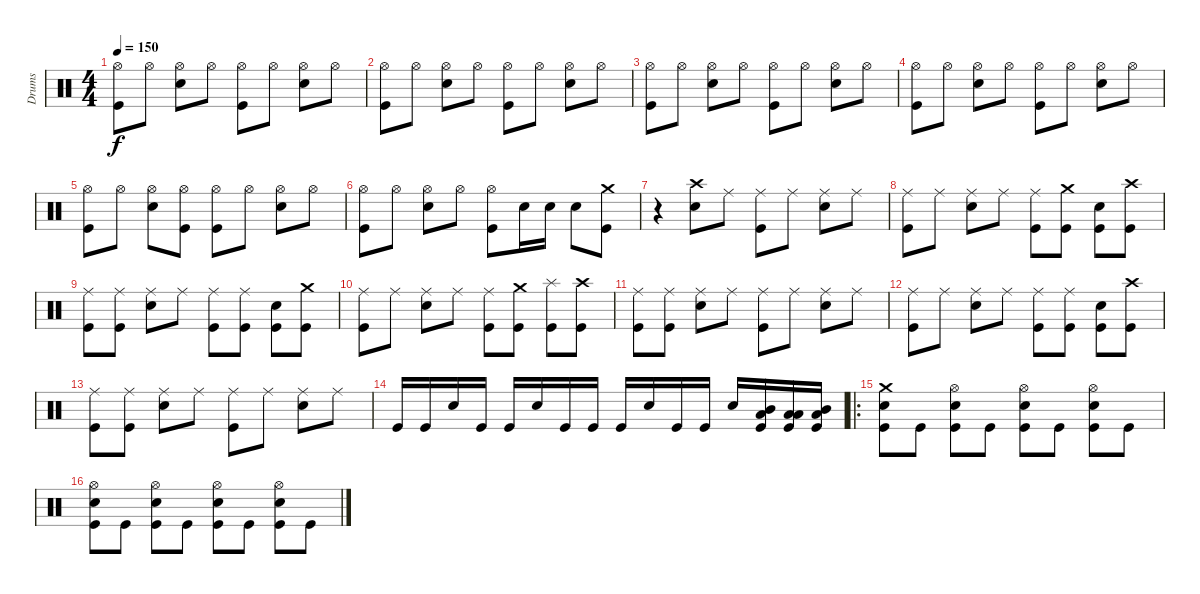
\track ("Drums" "Drums") {instrument percussion}
\staff {score}
\articulation defaults
\ts (4 4)
\tempo 150
\clef neutral
\ks c
("Hi-Hat (open)" "Kick (hit)").8{dy f} "Hi-Hat (open)".8 ("Hi-Hat (open)" "Snare (hit) 2").8 "Hi-Hat (open)".8 ("Hi-Hat (open)" "Kick (hit)").8 "Hi-Hat (open)".8 ("Hi-Hat (open)" "Snare (hit) 2").8 "Hi-Hat (open)".8 |
("Hi-Hat (open)" "Kick (hit)").8 "Hi-Hat (open)".8 ("Hi-Hat (open)" "Snare (hit) 2").8 "Hi-Hat (open)".8 ("Hi-Hat (open)" "Kick (hit)").8 "Hi-Hat (open)".8 ("Hi-Hat (open)" "Snare (hit) 2").8 "Hi-Hat (open)".8 |
("Hi-Hat (open)" "Kick (hit)").8 "Hi-Hat (open)".8 ("Hi-Hat (open)" "Snare (hit) 2").8 "Hi-Hat (open)".8 ("Hi-Hat (open)" "Kick (hit)").8 "Hi-Hat (open)".8 ("Hi-Hat (open)" "Snare (hit) 2").8 "Hi-Hat (open)".8 |
("Hi-Hat (open)" "Kick (hit)").8 "Hi-Hat (open)".8 ("Hi-Hat (open)" "Snare (hit) 2").8 "Hi-Hat (open)".8 ("Hi-Hat (open)" "Kick (hit)").8 "Hi-Hat (open)".8 ("Hi-Hat (open)" "Snare (hit) 2").8 "Hi-Hat (open)".8 |
("Hi-Hat (open)" "Kick (hit)").8 "Hi-Hat (open)".8 ("Hi-Hat (open)" "Snare (hit) 2").8 ("Hi-Hat (open)" "Kick (hit)").8 ("Hi-Hat (open)" "Kick (hit)").8 "Hi-Hat (open)".8 ("Hi-Hat (open)" "Snare (hit) 2").8 "Hi-Hat (open)".8 |
("Hi-Hat (open)" "Kick (hit)").8 "Hi-Hat (open)".8 ("Hi-Hat (open)" "Snare (hit) 2").8 "Hi-Hat (open)".8 ("Hi-Hat (open)" "Kick (hit)").8 "Snare (hit) 2".16 "Snare (hit) 2".16 "Snare (hit) 2".8 ("Crash medium (hit)" "Kick (hit)").8 |
r.4 ("Crash high (hit)" "Snare (hit) 2").8 "Ride (middle)".8 ("Ride (middle)" "Kick (hit)").8 "Ride (middle)".8 ("Ride (middle)" "Snare (hit) 2").8 "Ride (middle)".8 |
("Ride (middle)" "Kick (hit)").8 "Ride (middle)".8 ("Ride (middle)" "Snare (hit) 2").8 "Ride (middle)".8 ("Ride (middle)" "Kick (hit)").8 ("Crash medium (hit)" "Kick (hit)").8 ("Snare (hit) 2" "Kick (hit)").8 ("Crash high (hit)" "Kick (hit)").8 |
("Ride (middle)" "Kick (hit)").8 ("Ride (middle)" "Kick (hit)").8 ("Ride (middle)" "Snare (hit) 2").8 "Ride (middle)".8 ("Ride (middle)" "Kick (hit)").8 ("Ride (middle)" "Kick (hit)").8 ("Snare (hit) 2" "Kick (hit)").8 ("Crash medium (hit)" "Kick (hit)").8 |
("Ride (middle)" "Kick (hit)").8 "Ride (middle)".8 ("Ride (middle)" "Snare (hit) 2").8 "Ride (middle)".8 ("Ride (middle)" "Kick (hit)").8 ("Crash medium (hit)" "Kick (hit)").8 ("Splash (hit)" "Kick (hit)").8 ("Crash high (hit)" "Kick (hit)").8 |
("Ride (middle)" "Kick (hit)").8 ("Ride (middle)" "Kick (hit)").8 ("Ride (middle)" "Snare (hit) 2").8 "Ride (middle)".8 ("Ride (middle)" "Kick (hit)").8 "Ride (middle)".8 ("Ride (middle)" "Snare (hit) 2").8 "Ride (middle)".8 |
("Ride (middle)" "Kick (hit)").8 "Ride (middle)".8 ("Ride (middle)" "Snare (hit) 2").8 "Ride (middle)".8 ("Ride (middle)" "Kick (hit)").8 ("Ride (middle)" "Kick (hit)").8 ("Snare (hit) 2" "Kick (hit)").8 ("Crash high (hit)" "Kick (hit)").8 |
("Ride (middle)" "Kick (hit)").8 ("Ride (middle)" "Kick (hit)").8 ("Ride (middle)" "Snare (hit) 2").8 "Ride (middle)".8 ("Ride (middle)" "Kick (hit)").8 "Ride (middle)".8 ("Ride (middle)" "Snare (hit) 2").8 "Ride (middle)".8 |
"Kick (hit)".16 "Kick (hit)".16 "Snare (hit) 2".16 "Kick (hit)".16 "Kick (hit)".16 "Snare (hit) 2".16 "Kick (hit)".16 "Kick (hit)".16 "Kick (hit)".16 "Snare (hit) 2".16 "Kick (hit)".16 "Kick (hit)".16 "Snare (hit) 2".16 ("Low Tom (hit)" "Mid Tom (hit)" "Kick (hit)").16 ("Low Floor Tom (hit)" "Low Tom (hit)" "Kick (hit)").16 ("Mid Tom (hit)" "Low Floor Tom (hit)" "Kick (hit)").16 |
\ro
("Crash medium (hit)" "Snare (hit) 2" "Kick (hit)").8 "Kick (hit)".8 ("Hi-Hat (open)" "Snare (hit) 2" "Kick (hit)").8 "Kick (hit)".8 ("Hi-Hat (open)" "Snare (hit) 2" "Kick (hit)").8 "Kick (hit)".8 ("Hi-Hat (open)" "Snare (hit) 2" "Kick (hit)").8 "Kick (hit)".8 |
("Hi-Hat (open)" "Snare (hit) 2" "Kick (hit)").8 "Kick (hit)".8 ("Hi-Hat (open)" "Snare (hit) 2" "Kick (hit)").8 "Kick (hit)".8 ("Hi-Hat (open)" "Snare (hit) 2" "Kick (hit)").8 "Kick (hit)".8 ("Hi-Hat (open)" "Snare (hit) 2" "Kick (hit)").8 "Kick (hit)".8
